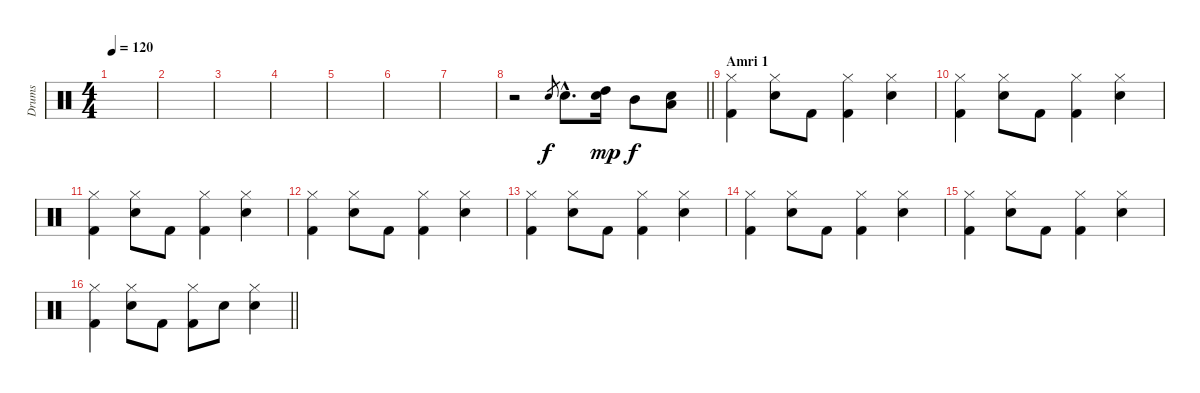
\track ("Drums" "Drums") {instrument percussion}
\staff {score}
\articulation defaults
\ts (4 4)
\tempo 120
\clef neutral
\ks c
|
|
|
|
|
|
|
\barLineRight lightlight
r.2 "Electric Snare (hit)".8{gr} "Electric Snare (hit)"{hac}.8{d} ("High Tom (hit)" "Electric Snare (hit)").16{dy mp} "Mid Tom (hit)".8{dy f} ("Electric Snare (hit)" "Low Tom (hit)").8 |
\section ("" "Amri 1")
("Kick (hit) 2" "Hi-Hat (closed)").4 ("Hi-Hat (closed)" "Electric Snare (hit)").8 "Kick (hit) 2".8 ("Kick (hit) 2" "Hi-Hat (closed)").4 ("Electric Snare (hit)" "Hi-Hat (closed)").4 |
("Kick (hit) 2" "Hi-Hat (closed)").4 ("Hi-Hat (closed)" "Electric Snare (hit)").8 "Kick (hit) 2".8 ("Kick (hit) 2" "Hi-Hat (closed)").4 ("Electric Snare (hit)" "Hi-Hat (closed)").4 |
("Kick (hit) 2" "Hi-Hat (closed)").4 ("Hi-Hat (closed)" "Electric Snare (hit)").8 "Kick (hit) 2".8 ("Kick (hit) 2" "Hi-Hat (closed)").4 ("Electric Snare (hit)" "Hi-Hat (closed)").4 |
("Kick (hit) 2" "Hi-Hat (closed)").4 ("Hi-Hat (closed)" "Electric Snare (hit)").8 "Kick (hit) 2".8 ("Kick (hit) 2" "Hi-Hat (closed)").4 ("Electric Snare (hit)" "Hi-Hat (closed)").4 |
("Kick (hit) 2" "Hi-Hat (closed)").4 ("Hi-Hat (closed)" "Electric Snare (hit)").8 "Kick (hit) 2".8 ("Kick (hit) 2" "Hi-Hat (closed)").4 ("Electric Snare (hit)" "Hi-Hat (closed)").4 |
("Kick (hit) 2" "Hi-Hat (closed)").4 ("Hi-Hat (closed)" "Electric Snare (hit)").8 "Kick (hit) 2".8 ("Kick (hit) 2" "Hi-Hat (closed)").4 ("Electric Snare (hit)" "Hi-Hat (closed)").4 |
("Kick (hit) 2" "Hi-Hat (closed)").4 ("Hi-Hat (closed)" "Electric Snare (hit)").8 "Kick (hit) 2".8 ("Kick (hit) 2" "Hi-Hat (closed)").4 ("Electric Snare (hit)" "Hi-Hat (closed)").4 |
\barLineRight lightlight
("Kick (hit) 2" "Hi-Hat (closed)").4 ("Hi-Hat (closed)" "Electric Snare (hit)").8 "Kick (hit) 2".8 ("Kick (hit) 2" "Hi-Hat (closed)").8 "Electric Snare (hit)".8 ("Hi-Hat (closed)" "Electric Snare (hit)").4
